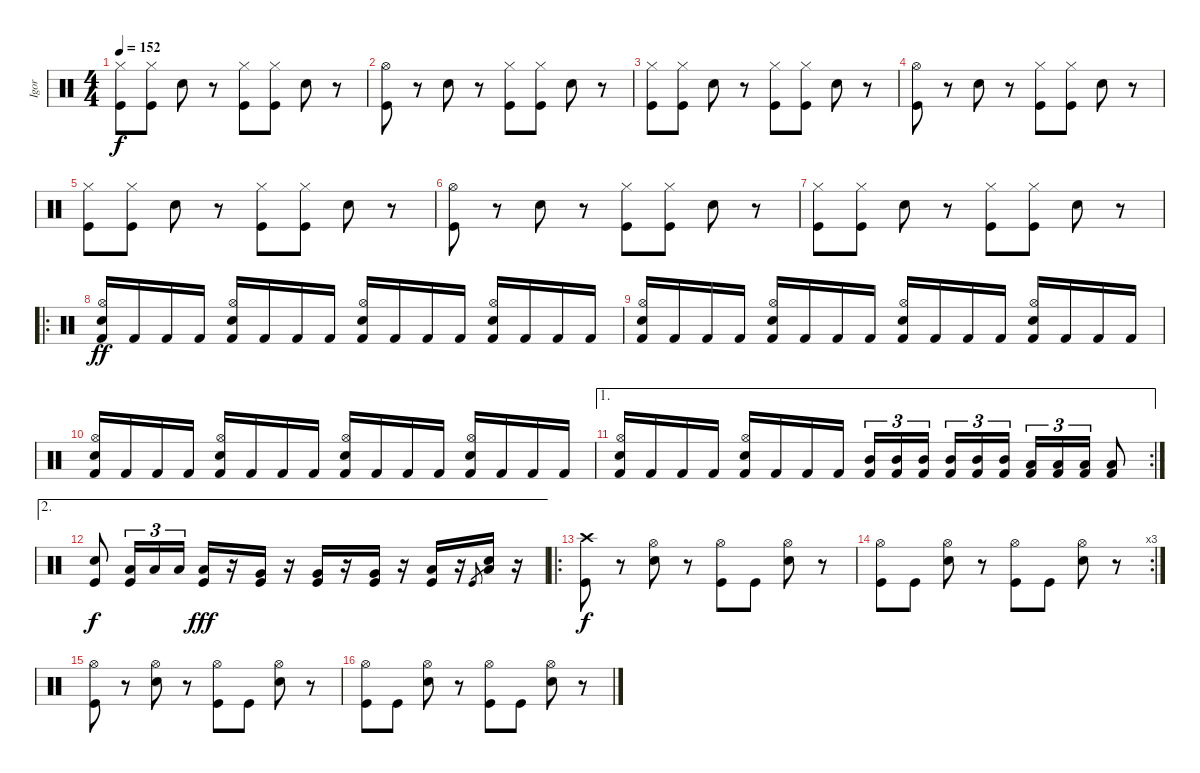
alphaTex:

\track ("Igor" "Igor") {instrument percussion}
\staff {score}
\articulation defaults
\ts (4 4)
\tempo 152
\clef neutral
\ks c
("Hi-Hat (closed)" "Kick (hit)").8{dy f} ("Hi-Hat (closed)" "Kick (hit)").8 "Snare (hit) 2".8 r.8 ("Hi-Hat (closed)" "Kick (hit)").8 ("Hi-Hat (closed)" "Kick (hit)").8 "Snare (hit) 2".8 r.8 |
("Hi-Hat (open)" "Kick (hit)").8 r.8 "Snare (hit) 2".8 r.8 ("Hi-Hat (closed)" "Kick (hit)").8 ("Hi-Hat (closed)" "Kick (hit)").8 "Snare (hit) 2".8 r.8 |
("Hi-Hat (closed)" "Kick (hit)").8 ("Hi-Hat (closed)" "Kick (hit)").8 "Snare (hit) 2".8 r.8 ("Hi-Hat (closed)" "Kick (hit)").8 ("Hi-Hat (closed)" "Kick (hit)").8 "Snare (hit) 2".8 r.8 |
("Hi-Hat (open)" "Kick (hit)").8 r.8 "Snare (hit) 2".8 r.8 ("Hi-Hat (closed)" "Kick (hit)").8 ("Hi-Hat (closed)" "Kick (hit)").8 "Snare (hit) 2".8 r.8 |
("Hi-Hat (closed)" "Kick (hit)").8 ("Hi-Hat (closed)" "Kick (hit)").8 "Snare (hit) 2".8 r.8 ("Hi-Hat (closed)" "Kick (hit)").8 ("Hi-Hat (closed)" "Kick (hit)").8 "Snare (hit) 2".8 r.8 |
("Hi-Hat (open)" "Kick (hit)").8 r.8 "Snare (hit) 2".8 r.8 ("Hi-Hat (closed)" "Kick (hit)").8 ("Hi-Hat (closed)" "Kick (hit)").8 "Snare (hit) 2".8 r.8 |
("Hi-Hat (closed)" "Kick (hit)").8 ("Hi-Hat (closed)" "Kick (hit)").8 "Snare (hit) 2".8 r.8 ("Hi-Hat (closed)" "Kick (hit)").8 ("Hi-Hat (closed)" "Kick (hit)").8 "Snare (hit) 2".8 r.8 |
\ro
("Hi-Hat (open)" "Snare (hit) 2" "Kick (hit) 2").16{dy ff} "Kick (hit) 2".16 "Kick (hit) 2".16 "Kick (hit) 2".16 ("Hi-Hat (open)" "Snare (hit) 2" "Kick (hit) 2").16 "Kick (hit) 2".16 "Kick (hit) 2".16 "Kick (hit) 2".16 ("Hi-Hat (open)" "Snare (hit) 2" "Kick (hit) 2").16 "Kick (hit) 2".16 "Kick (hit) 2".16 "Kick (hit) 2".16 ("Hi-Hat (open)" "Snare (hit) 2" "Kick (hit) 2").16 "Kick (hit) 2".16 "Kick (hit) 2".16 "Kick (hit) 2".16 |
("Hi-Hat (open)" "Snare (hit) 2" "Kick (hit) 2").16 "Kick (hit) 2".16 "Kick (hit) 2".16 "Kick (hit) 2".16 ("Hi-Hat (open)" "Snare (hit) 2" "Kick (hit) 2").16 "Kick (hit) 2".16 "Kick (hit) 2".16 "Kick (hit) 2".16 ("Hi-Hat (open)" "Snare (hit) 2" "Kick (hit) 2").16 "Kick (hit) 2".16 "Kick (hit) 2".16 "Kick (hit) 2".16 ("Hi-Hat (open)" "Snare (hit) 2" "Kick (hit) 2").16 "Kick (hit) 2".16 "Kick (hit) 2".16 "Kick (hit) 2".16 |
("Hi-Hat (open)" "Snare (hit) 2" "Kick (hit) 2").16 "Kick (hit) 2".16 "Kick (hit) 2".16 "Kick (hit) 2".16 ("Hi-Hat (open)" "Snare (hit) 2" "Kick (hit) 2").16 "Kick (hit) 2".16 "Kick (hit) 2".16 "Kick (hit) 2".16 ("Hi-Hat (open)" "Snare (hit) 2" "Kick (hit) 2").16 "Kick (hit) 2".16 "Kick (hit) 2".16 "Kick (hit) 2".16 ("Hi-Hat (open)" "Snare (hit) 2" "Kick (hit) 2").16 "Kick (hit) 2".16 "Kick (hit) 2".16 "Kick (hit) 2".16 |
\ae 1
\rc 2
("Hi-Hat (open)" "Snare (hit) 2" "Kick (hit) 2").16 "Kick (hit) 2".16 "Kick (hit) 2".16 "Kick (hit) 2".16 ("Hi-Hat (open)" "Snare (hit) 2" "Kick (hit) 2").16 "Kick (hit) 2".16 "Kick (hit) 2".16 "Kick (hit) 2".16 ("Mid Tom (hit)" "Kick (hit) 2").16{tu (3 2)} ("Mid Tom (hit)" "Kick (hit) 2").16{tu (3 2)} ("Mid Tom (hit)" "Kick (hit) 2").16{tu (3 2)} ("Mid Tom (hit)" "Kick (hit) 2").16{tu (3 2)} ("Mid Tom (hit)" "Kick (hit) 2").16{tu (3 2)} ("Mid Tom (hit)" "Kick (hit) 2").16{tu (3 2)} ("Low Tom (hit)" "Kick (hit) 2").16{tu (3 2)} ("Low Tom (hit)" "Kick (hit) 2").16{tu (3 2)} ("Low Tom (hit)" "Kick (hit) 2").16{tu (3 2)} ("Low Tom (hit)" "Kick (hit) 2").8 |
\ae 2
("Snare (hit) 2" "Kick (hit)").8{dy f} ("Low Tom (hit)" "Kick (hit)").16{tu (3 2)} "Low Tom (hit)".16{tu (3 2)} "Low Tom (hit)".16{tu (3 2)} ("Low Tom (hit)" "Kick (hit)").16{dy fff} r.16 ("Very Low Tom (hit)" "Kick (hit)").16 r.16 ("Very Low Tom (hit)" "Kick (hit)").16 r.16 ("Very Low Tom (hit)" "Kick (hit)").16 r.16 ("Low Floor Tom (hit)" "Kick (hit)").16 r.16 "Kick (hit)".8{gr} ("Low Floor Tom (hit)" "Snare (hit) 2").16 r.16 |
\ro
("Crash high (hit)" "Kick (hit)").8{dy f} r.8 ("Hi-Hat (open)" "Snare (hit) 2").8 r.8 ("Hi-Hat (open)" "Kick (hit)").8 "Kick (hit)".8 ("Hi-Hat (open)" "Snare (hit) 2").8 r.8 |
\rc 3
("Hi-Hat (open)" "Kick (hit)").8 "Kick (hit)".8 ("Hi-Hat (open)" "Snare (hit) 2").8 r.8 ("Hi-Hat (open)" "Kick (hit)").8 "Kick (hit)".8 ("Hi-Hat (open)" "Snare (hit) 2").8 r.8 |
("Hi-Hat (open)" "Kick (hit)").8 r.8 ("Hi-Hat (open)" "Snare (hit) 2").8 r.8 ("Hi-Hat (open)" "Kick (hit)").8 "Kick (hit)".8 ("Hi-Hat (open)" "Snare (hit) 2").8 r.8 |
("Hi-Hat (open)" "Kick (hit)").8 "Kick (hit)".8 ("Hi-Hat (open)" "Snare (hit) 2").8 r.8 ("Hi-Hat (open)" "Kick (hit)").8 "Kick (hit)".8 ("Hi-Hat (open)" "Snare (hit) 2").8 r.8
